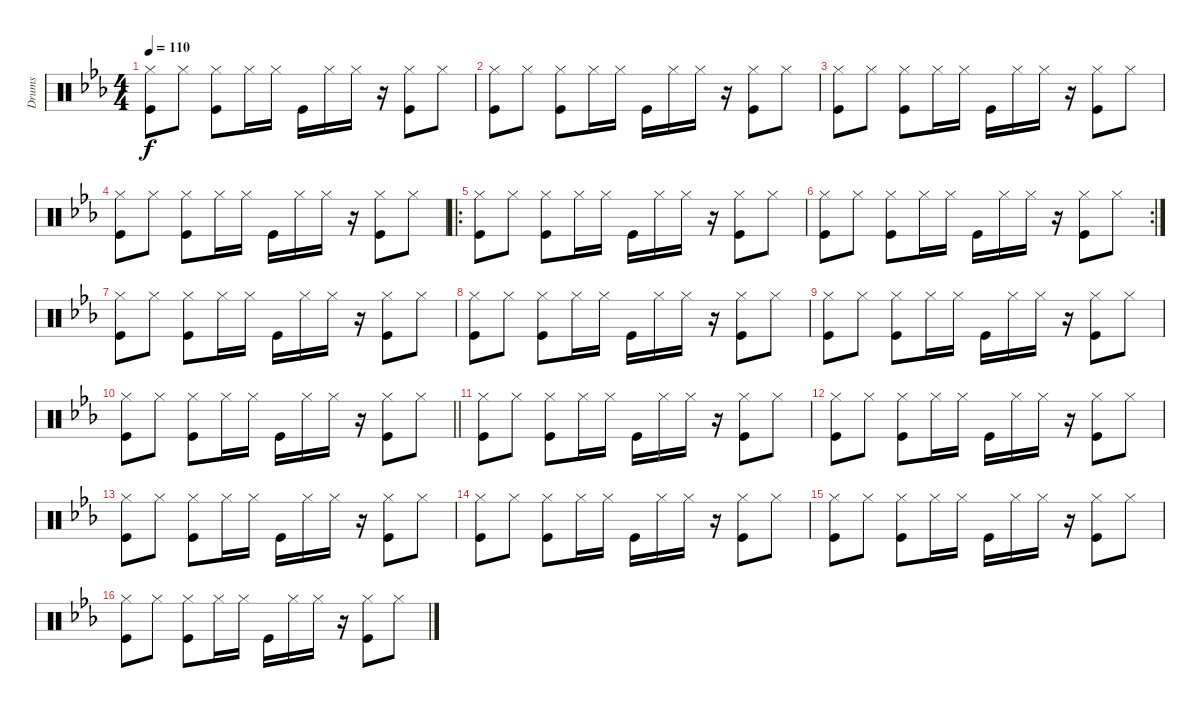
\track ("Drums" "Drums") {instrument percussion}
\staff {score}
\articulation defaults
\ts (4 4)
\tempo 110
\clef neutral
\ks eb
("Hi-Hat (closed)" "Kick (hit)").8{dy f} "Hi-Hat (closed)".8 ("Hi-Hat (closed)" "Kick (hit)").8 "Hi-Hat (closed)".16 "Hi-Hat (closed)".16 "Kick (hit)".16 "Hi-Hat (closed)".16 "Hi-Hat (closed)".16 r.16 ("Hi-Hat (closed)" "Kick (hit)").8 "Hi-Hat (closed)".8 |
("Hi-Hat (closed)" "Kick (hit)").8 "Hi-Hat (closed)".8 ("Hi-Hat (closed)" "Kick (hit)").8 "Hi-Hat (closed)".16 "Hi-Hat (closed)".16 "Kick (hit)".16 "Hi-Hat (closed)".16 "Hi-Hat (closed)".16 r.16 ("Hi-Hat (closed)" "Kick (hit)").8 "Hi-Hat (closed)".8 |
("Hi-Hat (closed)" "Kick (hit)").8 "Hi-Hat (closed)".8 ("Hi-Hat (closed)" "Kick (hit)").8 "Hi-Hat (closed)".16 "Hi-Hat (closed)".16 "Kick (hit)".16 "Hi-Hat (closed)".16 "Hi-Hat (closed)".16 r.16 ("Hi-Hat (closed)" "Kick (hit)").8 "Hi-Hat (closed)".8 |
("Hi-Hat (closed)" "Kick (hit)").8 "Hi-Hat (closed)".8 ("Hi-Hat (closed)" "Kick (hit)").8 "Hi-Hat (closed)".16 "Hi-Hat (closed)".16 "Kick (hit)".16 "Hi-Hat (closed)".16 "Hi-Hat (closed)".16 r.16 ("Hi-Hat (closed)" "Kick (hit)").8 "Hi-Hat (closed)".8 |
\ro
("Hi-Hat (closed)" "Kick (hit)").8 "Hi-Hat (closed)".8 ("Hi-Hat (closed)" "Kick (hit)").8 "Hi-Hat (closed)".16 "Hi-Hat (closed)".16 "Kick (hit)".16 "Hi-Hat (closed)".16 "Hi-Hat (closed)".16 r.16 ("Hi-Hat (closed)" "Kick (hit)").8 "Hi-Hat (closed)".8 |
\rc 2
("Hi-Hat (closed)" "Kick (hit)").8 "Hi-Hat (closed)".8 ("Hi-Hat (closed)" "Kick (hit)").8 "Hi-Hat (closed)".16 "Hi-Hat (closed)".16 "Kick (hit)".16 "Hi-Hat (closed)".16 "Hi-Hat (closed)".16 r.16 ("Hi-Hat (closed)" "Kick (hit)").8 "Hi-Hat (closed)".8 |
("Hi-Hat (closed)" "Kick (hit)").8 "Hi-Hat (closed)".8 ("Hi-Hat (closed)" "Kick (hit)").8 "Hi-Hat (closed)".16 "Hi-Hat (closed)".16 "Kick (hit)".16 "Hi-Hat (closed)".16 "Hi-Hat (closed)".16 r.16 ("Hi-Hat (closed)" "Kick (hit)").8 "Hi-Hat (closed)".8 |
("Hi-Hat (closed)" "Kick (hit)").8 "Hi-Hat (closed)".8 ("Hi-Hat (closed)" "Kick (hit)").8 "Hi-Hat (closed)".16 "Hi-Hat (closed)".16 "Kick (hit)".16 "Hi-Hat (closed)".16 "Hi-Hat (closed)".16 r.16 ("Hi-Hat (closed)" "Kick (hit)").8 "Hi-Hat (closed)".8 |
("Hi-Hat (closed)" "Kick (hit)").8 "Hi-Hat (closed)".8 ("Hi-Hat (closed)" "Kick (hit)").8 "Hi-Hat (closed)".16 "Hi-Hat (closed)".16 "Kick (hit)".16 "Hi-Hat (closed)".16 "Hi-Hat (closed)".16 r.16 ("Hi-Hat (closed)" "Kick (hit)").8 "Hi-Hat (closed)".8 |
\barLineRight lightlight
("Hi-Hat (closed)" "Kick (hit)").8 "Hi-Hat (closed)".8 ("Hi-Hat (closed)" "Kick (hit)").8 "Hi-Hat (closed)".16 "Hi-Hat (closed)".16 "Kick (hit)".16 "Hi-Hat (closed)".16 "Hi-Hat (closed)".16 r.16 ("Hi-Hat (closed)" "Kick (hit)").8 "Hi-Hat (closed)".8 |
("Hi-Hat (closed)" "Kick (hit)").8 "Hi-Hat (closed)".8 ("Hi-Hat (closed)" "Kick (hit)").8 "Hi-Hat (closed)".16 "Hi-Hat (closed)".16 "Kick (hit)".16 "Hi-Hat (closed)".16 "Hi-Hat (closed)".16 r.16 ("Hi-Hat (closed)" "Kick (hit)").8 "Hi-Hat (closed)".8 |
("Hi-Hat (closed)" "Kick (hit)").8 "Hi-Hat (closed)".8 ("Hi-Hat (closed)" "Kick (hit)").8 "Hi-Hat (closed)".16 "Hi-Hat (closed)".16 "Kick (hit)".16 "Hi-Hat (closed)".16 "Hi-Hat (closed)".16 r.16 ("Hi-Hat (closed)" "Kick (hit)").8 "Hi-Hat (closed)".8 |
("Hi-Hat (closed)" "Kick (hit)").8 "Hi-Hat (closed)".8 ("Hi-Hat (closed)" "Kick (hit)").8 "Hi-Hat (closed)".16 "Hi-Hat (closed)".16 "Kick (hit)".16 "Hi-Hat (closed)".16 "Hi-Hat (closed)".16 r.16 ("Hi-Hat (closed)" "Kick (hit)").8 "Hi-Hat (closed)".8 |
("Hi-Hat (closed)" "Kick (hit)").8 "Hi-Hat (closed)".8 ("Hi-Hat (closed)" "Kick (hit)").8 "Hi-Hat (closed)".16 "Hi-Hat (closed)".16 "Kick (hit)".16 "Hi-Hat (closed)".16 "Hi-Hat (closed)".16 r.16 ("Hi-Hat (closed)" "Kick (hit)").8 "Hi-Hat (closed)".8 |
("Hi-Hat (closed)" "Kick (hit)").8 "Hi-Hat (closed)".8 ("Hi-Hat (closed)" "Kick (hit)").8 "Hi-Hat (closed)".16 "Hi-Hat (closed)".16 "Kick (hit)".16 "Hi-Hat (closed)".16 "Hi-Hat (closed)".16 r.16 ("Hi-Hat (closed)" "Kick (hit)").8 "Hi-Hat (closed)".8 |
("Hi-Hat (closed)" "Kick (hit)").8 "Hi-Hat (closed)".8 ("Hi-Hat (closed)" "Kick (hit)").8 "Hi-Hat (closed)".16 "Hi-Hat (closed)".16 "Kick (hit)".16 "Hi-Hat (closed)".16 "Hi-Hat (closed)".16 r.16 ("Hi-Hat (closed)" "Kick (hit)").8 "Hi-Hat (closed)".8
